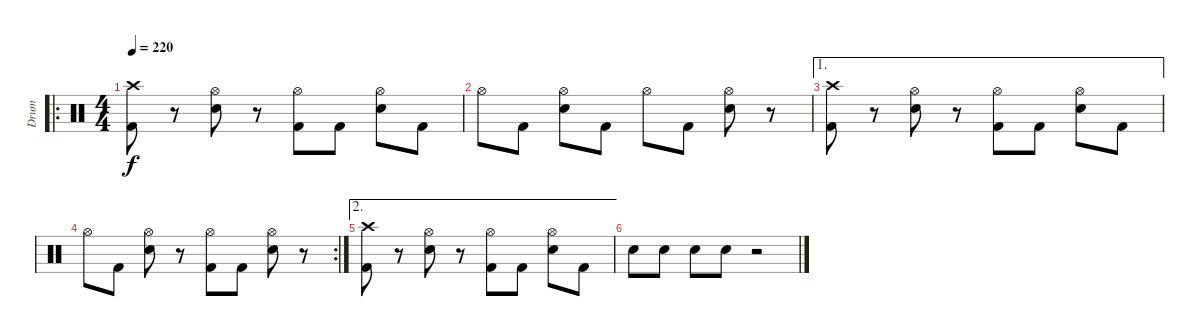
\track ("Drum" "Drum") {instrument percussion}
\staff {score}
\articulation defaults
\ro
\ts (4 4)
\tempo 220
\clef neutral
\ks c
("Crash high (hit)" "Kick (hit) 2").8{dy f} r.8 ("Electric Snare (hit)" "Hi-Hat (open)").8 r.8 ("Kick (hit) 2" "Hi-Hat (open)").8 "Kick (hit) 2".8 ("Electric Snare (hit)" "Hi-Hat (open)").8 "Kick (hit) 2".8 |
"Hi-Hat (open)".8 "Kick (hit) 2".8 ("Electric Snare (hit)" "Hi-Hat (open)").8 "Kick (hit) 2".8 "Hi-Hat (open)".8 "Kick (hit) 2".8 ("Electric Snare (hit)" "Hi-Hat (open)").8 r.8 |
\ae 1
("Crash high (hit)" "Kick (hit) 2").8 r.8 ("Electric Snare (hit)" "Hi-Hat (open)").8 r.8 ("Kick (hit) 2" "Hi-Hat (open)").8 "Kick (hit) 2".8 ("Electric Snare (hit)" "Hi-Hat (open)").8 "Kick (hit) 2".8 |
\rc 2 "Hi-Hat (open)".8 "Kick (hit) 2".8
("Electric Snare (hit)" "Hi-Hat (open)").8 r.8 ("Kick (hit) 2" "Hi-Hat (open)").8 "Kick (hit) 2".8 ("Electric Snare (hit)" "Hi-Hat (open)").8 r.8 |
\ae 2
("Crash high (hit)" "Kick (hit) 2").8 r.8 ("Electric Snare (hit)" "Hi-Hat (open)").8 r.8 ("Kick (hit) 2" "Hi-Hat (open)").8 "Kick (hit) 2".8 ("Electric Snare (hit)" "Hi-Hat (open)").8 "Kick (hit) 2".8 |
"Electric Snare (hit)".8 "Electric Snare (hit)".8 "Electric Snare (hit)".8 "Electric Snare (hit)".8 r.2
